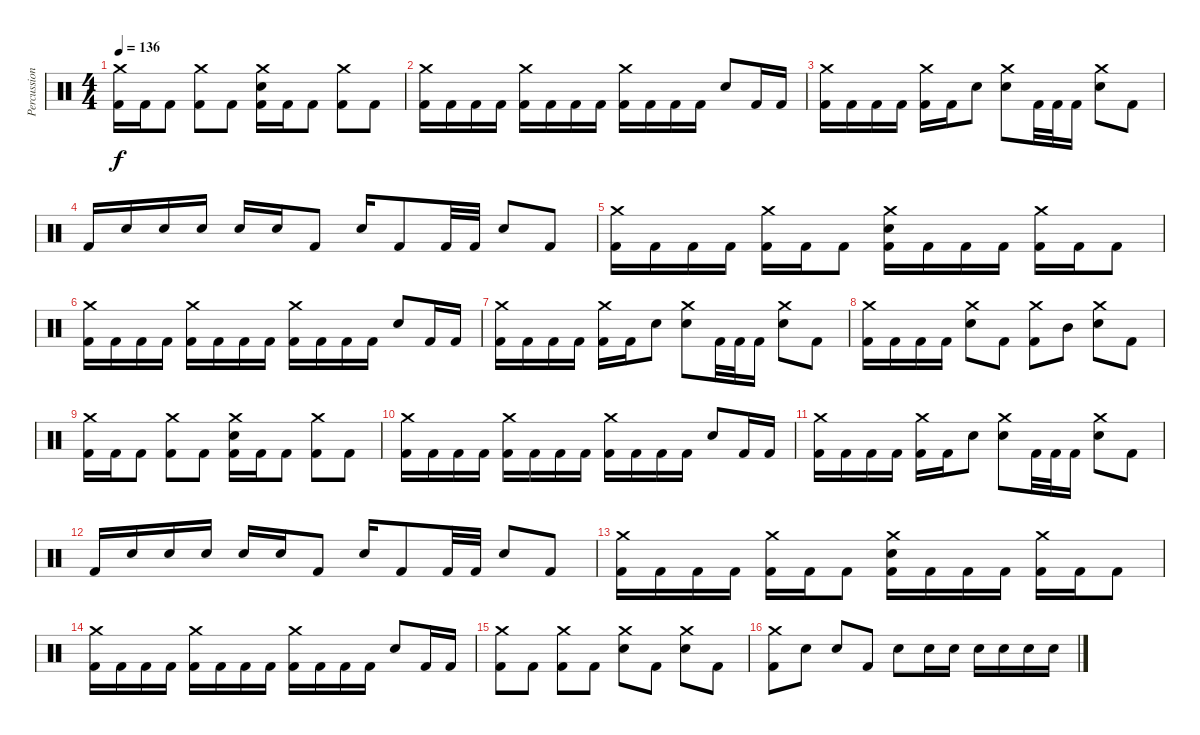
\track ("Percussion" "Percussion") {instrument percussion}
\staff {score}
\articulation defaults
\ts (4 4)
\tempo 136
\clef neutral
\ks c
("Crash medium (hit)" "Kick (hit) 2").16{dy f} "Kick (hit) 2".16 "Kick (hit) 2".8 ("Crash medium (hit)" "Kick (hit) 2").8 "Kick (hit) 2".8 ("Crash medium (hit)" "Electric Snare (hit)" "Kick (hit) 2").16 "Kick (hit) 2".16 "Kick (hit) 2".8 ("Crash medium (hit)" "Kick (hit) 2").8 "Kick (hit) 2".8 |
("Crash medium (hit)" "Kick (hit) 2").16 "Kick (hit) 2".16 "Kick (hit) 2".16 "Kick (hit) 2".16 ("Crash medium (hit)" "Kick (hit) 2").16 "Kick (hit) 2".16 "Kick (hit) 2".16 "Kick (hit) 2".16 ("Crash medium (hit)" "Kick (hit) 2").16 "Kick (hit) 2".16 "Kick (hit) 2".16 "Kick (hit) 2".16 "Electric Snare (hit)".8 "Kick (hit) 2".16 "Kick (hit) 2".16 |
("Crash medium (hit)" "Kick (hit) 2").16 "Kick (hit) 2".16 "Kick (hit) 2".16 "Kick (hit) 2".16 ("Crash medium (hit)" "Kick (hit) 2").16 "Kick (hit) 2".16 "Electric Snare (hit)".8 ("Crash medium (hit)" "Electric Snare (hit)").8 "Kick (hit) 2".32 "Kick (hit) 2".32 "Kick (hit) 2".16 ("Crash medium (hit)" "Electric Snare (hit)").8 "Kick (hit) 2".8 |
"Kick (hit) 2".16 "Electric Snare (hit)".16 "Electric Snare (hit)".16 "Electric Snare (hit)".16 "Electric Snare (hit)".16 "Electric Snare (hit)".16 "Kick (hit) 2".8 "Electric Snare (hit)".16 "Kick (hit) 2".8 "Kick (hit) 2".32 "Kick (hit) 2".32 "Electric Snare (hit)".8 "Kick (hit) 2".8 |
("Crash medium (hit)" "Kick (hit) 2").16 "Kick (hit) 2".16 "Kick (hit) 2".16 "Kick (hit) 2".16 ("Crash medium (hit)" "Kick (hit) 2").16 "Kick (hit) 2".16 "Kick (hit) 2".8 ("Crash medium (hit)" "Electric Snare (hit)" "Kick (hit) 2").16 "Kick (hit) 2".16 "Kick (hit) 2".16 "Kick (hit) 2".16 ("Crash medium (hit)" "Kick (hit) 2").16 "Kick (hit) 2".16 "Kick (hit) 2".8 |
("Crash medium (hit)" "Kick (hit) 2").16 "Kick (hit) 2".16 "Kick (hit) 2".16 "Kick (hit) 2".16 ("Crash medium (hit)" "Kick (hit) 2").16 "Kick (hit) 2".16 "Kick (hit) 2".16 "Kick (hit) 2".16 ("Crash medium (hit)" "Kick (hit) 2").16 "Kick (hit) 2".16 "Kick (hit) 2".16 "Kick (hit) 2".16 "Electric Snare (hit)".8 "Kick (hit) 2".16 "Kick (hit) 2".16 |
("Crash medium (hit)" "Kick (hit) 2").16 "Kick (hit) 2".16 "Kick (hit) 2".16 "Kick (hit) 2".16 ("Crash medium (hit)" "Kick (hit) 2").16 "Kick (hit) 2".16 "Electric Snare (hit)".8 ("Crash medium (hit)" "Electric Snare (hit)").8 "Kick (hit) 2".32 "Kick (hit) 2".32 "Kick (hit) 2".16 ("Crash medium (hit)" "Electric Snare (hit)").8 "Kick (hit) 2".8 |
("Crash medium (hit)" "Kick (hit) 2").16 "Kick (hit) 2".16 "Kick (hit) 2".16 "Kick (hit) 2".16 ("Crash medium (hit)" "Electric Snare (hit)").8 "Kick (hit) 2".8 ("Crash medium (hit)" "Kick (hit) 2").8 "Mid Tom (hit)".8 ("Crash medium (hit)" "Electric Snare (hit)").8 "Kick (hit) 2".8 |
("Crash medium (hit)" "Kick (hit) 2").16 "Kick (hit) 2".16 "Kick (hit) 2".8 ("Crash medium (hit)" "Kick (hit) 2").8 "Kick (hit) 2".8 ("Crash medium (hit)" "Electric Snare (hit)" "Kick (hit) 2").16 "Kick (hit) 2".16 "Kick (hit) 2".8 ("Crash medium (hit)" "Kick (hit) 2").8 "Kick (hit) 2".8 |
("Crash medium (hit)" "Kick (hit) 2").16 "Kick (hit) 2".16 "Kick (hit) 2".16 "Kick (hit) 2".16 ("Crash medium (hit)" "Kick (hit) 2").16 "Kick (hit) 2".16 "Kick (hit) 2".16 "Kick (hit) 2".16 ("Crash medium (hit)" "Kick (hit) 2").16 "Kick (hit) 2".16 "Kick (hit) 2".16 "Kick (hit) 2".16 "Electric Snare (hit)".8 "Kick (hit) 2".16 "Kick (hit) 2".16 |
("Crash medium (hit)" "Kick (hit) 2").16 "Kick (hit) 2".16 "Kick (hit) 2".16 "Kick (hit) 2".16 ("Crash medium (hit)" "Kick (hit) 2").16 "Kick (hit) 2".16 "Electric Snare (hit)".8 ("Crash medium (hit)" "Electric Snare (hit)").8 "Kick (hit) 2".32 "Kick (hit) 2".32 "Kick (hit) 2".16 ("Crash medium (hit)" "Electric Snare (hit)").8 "Kick (hit) 2".8 |
"Kick (hit) 2".16 "Electric Snare (hit)".16 "Electric Snare (hit)".16 "Electric Snare (hit)".16 "Electric Snare (hit)".16 "Electric Snare (hit)".16 "Kick (hit) 2".8 "Electric Snare (hit)".16 "Kick (hit) 2".8 "Kick (hit) 2".32 "Kick (hit) 2".32 "Electric Snare (hit)".8 "Kick (hit) 2".8 |
("Crash medium (hit)" "Kick (hit) 2").16 "Kick (hit) 2".16 "Kick (hit) 2".16 "Kick (hit) 2".16 ("Crash medium (hit)" "Kick (hit) 2").16 "Kick (hit) 2".16 "Kick (hit) 2".8 ("Crash medium (hit)" "Electric Snare (hit)" "Kick (hit) 2").16 "Kick (hit) 2".16 "Kick (hit) 2".16 "Kick (hit) 2".16 ("Crash medium (hit)" "Kick (hit) 2").16 "Kick (hit) 2".16 "Kick (hit) 2".8 |
("Crash medium (hit)" "Kick (hit) 2").16 "Kick (hit) 2".16 "Kick (hit) 2".16 "Kick (hit) 2".16 ("Crash medium (hit)" "Kick (hit) 2").16 "Kick (hit) 2".16 "Kick (hit) 2".16 "Kick (hit) 2".16 ("Crash medium (hit)" "Kick (hit) 2").16 "Kick (hit) 2".16 "Kick (hit) 2".16 "Kick (hit) 2".16 "Electric Snare (hit)".8 "Kick (hit) 2".16 "Kick (hit) 2".16 |
("Crash medium (hit)" "Kick (hit) 2").8 "Kick (hit) 2".8 ("Crash medium (hit)" "Kick (hit) 2").8 "Kick (hit) 2".8 ("Crash medium (hit)" "Electric Snare (hit)").8 "Kick (hit) 2".8 ("Crash medium (hit)" "Electric Snare (hit)").8 "Kick (hit) 2".8 |
("Crash medium (hit)" "Kick (hit) 2").8 "Electric Snare (hit)".8 "Electric Snare (hit)".8 "Kick (hit) 2".8 "Electric Snare (hit)".8 "Electric Snare (hit)".16 "Electric Snare (hit)".16 "Electric Snare (hit)".16 "Electric Snare (hit)".16 "Electric Snare (hit)".16 "Electric Snare (hit)".16
